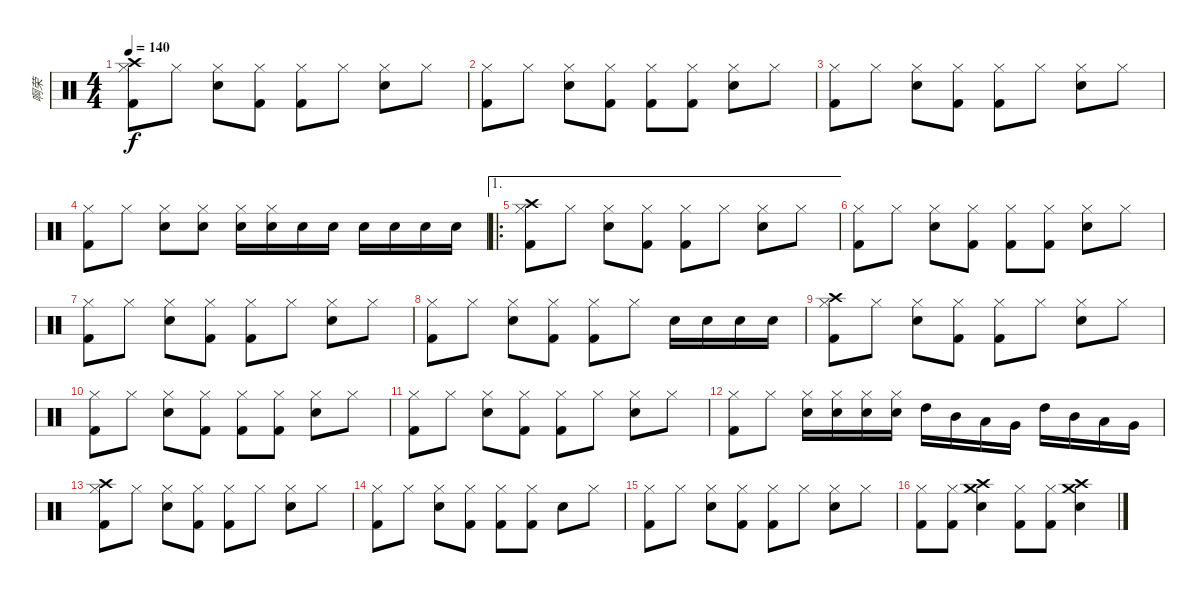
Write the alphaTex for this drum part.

\track ("啊荣" "啊荣") {instrument percussion}
\staff {score}
\articulation defaults
\ts (4 4)
\tempo 140
\clef neutral
\ks c
("Hi-Hat (closed)" "Crash high (hit)" "Kick (hit) 2").8{dy f} "Hi-Hat (closed)".8 ("Hi-Hat (closed)" "Electric Snare (hit)").8 ("Hi-Hat (closed)" "Kick (hit) 2").8 ("Hi-Hat (closed)" "Kick (hit) 2").8 "Hi-Hat (closed)".8 ("Hi-Hat (closed)" "Electric Snare (hit)").8 "Hi-Hat (closed)".8 |
("Hi-Hat (closed)" "Kick (hit) 2").8 "Hi-Hat (closed)".8 ("Hi-Hat (closed)" "Electric Snare (hit)").8 ("Hi-Hat (closed)" "Kick (hit) 2").8 ("Hi-Hat (closed)" "Kick (hit) 2").8 ("Hi-Hat (closed)" "Kick (hit) 2").8 ("Hi-Hat (closed)" "Electric Snare (hit)").8 "Hi-Hat (closed)".8 |
("Hi-Hat (closed)" "Kick (hit) 2").8 "Hi-Hat (closed)".8 ("Hi-Hat (closed)" "Electric Snare (hit)").8 ("Hi-Hat (closed)" "Kick (hit) 2").8 ("Hi-Hat (closed)" "Kick (hit) 2").8 "Hi-Hat (closed)".8 ("Hi-Hat (closed)" "Electric Snare (hit)").8 "Hi-Hat (closed)".8 |
("Hi-Hat (closed)" "Kick (hit) 2").8 "Hi-Hat (closed)".8 ("Hi-Hat (closed)" "Electric Snare (hit)").8 ("Hi-Hat (closed)" "Electric Snare (hit)").8 ("Hi-Hat (closed)" "Electric Snare (hit)").16 ("Hi-Hat (closed)" "Electric Snare (hit)").16 "Electric Snare (hit)".16 "Electric Snare (hit)".16 "Electric Snare (hit)".16 "Electric Snare (hit)".16 "Electric Snare (hit)".16 "Electric Snare (hit)".16 |
\ae 1
\ro
("Hi-Hat (closed)" "Crash high (hit)" "Kick (hit) 2").8 "Hi-Hat (closed)".8 ("Hi-Hat (closed)" "Electric Snare (hit)").8 ("Hi-Hat (closed)" "Kick (hit) 2").8 ("Hi-Hat (closed)" "Kick (hit) 2").8 "Hi-Hat (closed)".8 ("Hi-Hat (closed)" "Electric Snare (hit)").8 "Hi-Hat (closed)".8 |
("Hi-Hat (closed)" "Kick (hit) 2").8 "Hi-Hat (closed)".8 ("Hi-Hat (closed)" "Electric Snare (hit)").8 ("Hi-Hat (closed)" "Kick (hit) 2").8 ("Hi-Hat (closed)" "Kick (hit) 2").8 ("Hi-Hat (closed)" "Kick (hit) 2").8 ("Hi-Hat (closed)" "Electric Snare (hit)").8 "Hi-Hat (closed)".8 |
("Hi-Hat (closed)" "Kick (hit) 2").8 "Hi-Hat (closed)".8 ("Hi-Hat (closed)" "Electric Snare (hit)").8 ("Hi-Hat (closed)" "Kick (hit) 2").8 ("Hi-Hat (closed)" "Kick (hit) 2").8 "Hi-Hat (closed)".8 ("Hi-Hat (closed)" "Electric Snare (hit)").8 "Hi-Hat (closed)".8 |
("Hi-Hat (closed)" "Kick (hit) 2").8 "Hi-Hat (closed)".8 ("Hi-Hat (closed)" "Electric Snare (hit)").8 ("Hi-Hat (closed)" "Kick (hit) 2").8 ("Hi-Hat (closed)" "Kick (hit) 2").8 "Hi-Hat (closed)".8 "Electric Snare (hit)".16 "Electric Snare (hit)".16 "Electric Snare (hit)".16 "Electric Snare (hit)".16 |
("Hi-Hat (closed)" "Crash high (hit)" "Kick (hit) 2").8 "Hi-Hat (closed)".8 ("Hi-Hat (closed)" "Electric Snare (hit)").8 ("Hi-Hat (closed)" "Kick (hit) 2").8 ("Hi-Hat (closed)" "Kick (hit) 2").8 "Hi-Hat (closed)".8 ("Hi-Hat (closed)" "Electric Snare (hit)").8 "Hi-Hat (closed)".8 |
("Hi-Hat (closed)" "Kick (hit) 2").8 "Hi-Hat (closed)".8 ("Hi-Hat (closed)" "Electric Snare (hit)").8 ("Hi-Hat (closed)" "Kick (hit) 2").8 ("Hi-Hat (closed)" "Kick (hit) 2").8 ("Hi-Hat (closed)" "Kick (hit) 2").8 ("Hi-Hat (closed)" "Electric Snare (hit)").8 "Hi-Hat (closed)".8 |
("Hi-Hat (closed)" "Kick (hit) 2").8 "Hi-Hat (closed)".8 ("Hi-Hat (closed)" "Electric Snare (hit)").8 ("Hi-Hat (closed)" "Kick (hit) 2").8 ("Hi-Hat (closed)" "Kick (hit) 2").8 "Hi-Hat (closed)".8 ("Hi-Hat (closed)" "Electric Snare (hit)").8 "Hi-Hat (closed)".8 |
("Hi-Hat (closed)" "Kick (hit) 2").8 "Hi-Hat (closed)".8 ("Hi-Hat (closed)" "Electric Snare (hit)").16 ("Hi-Hat (closed)" "Electric Snare (hit)").16 ("Hi-Hat (closed)" "Electric Snare (hit)").16 ("Hi-Hat (closed)" "Electric Snare (hit)").16 "High Tom (hit)".16 "Mid Tom (hit)".16 "Low Tom (hit)".16 "Very Low Tom (hit)".16 "High Tom (hit)".16 "Mid Tom (hit)".16 "Low Tom (hit)".16 "Very Low Tom (hit)".16 |
("Kick (hit) 2" "Crash high (hit)" "Hi-Hat (closed)").8 "Hi-Hat (closed)".8 ("Hi-Hat (closed)" "Electric Snare (hit)").8 ("Hi-Hat (closed)" "Kick (hit) 2").8 ("Hi-Hat (closed)" "Kick (hit) 2").8 "Hi-Hat (closed)".8 ("Hi-Hat (closed)" "Electric Snare (hit)").8 "Hi-Hat (closed)".8 |
("Kick (hit) 2" "Hi-Hat (closed)").8 "Hi-Hat (closed)".8 ("Hi-Hat (closed)" "Electric Snare (hit)").8 ("Hi-Hat (closed)" "Kick (hit) 2").8 ("Hi-Hat (closed)" "Kick (hit) 2").8 ("Hi-Hat (closed)" "Kick (hit) 2").8 "Electric Snare (hit)".8 "Hi-Hat (closed)".8 |
("Kick (hit) 2" "Hi-Hat (closed)").8 "Hi-Hat (closed)".8 ("Hi-Hat (closed)" "Electric Snare (hit)").8 ("Hi-Hat (closed)" "Kick (hit) 2").8 ("Hi-Hat (closed)" "Kick (hit) 2").8 "Hi-Hat (closed)".8 ("Hi-Hat (closed)" "Electric Snare (hit)").8 "Hi-Hat (closed)".8 |
("Hi-Hat (closed)" "Kick (hit) 2").8 ("Hi-Hat (closed)" "Kick (hit) 2").8 ("Crash medium (hit)" "Crash high (hit)" "Electric Snare (hit)").4 ("Hi-Hat (closed)" "Kick (hit) 2").8 ("Hi-Hat (closed)" "Kick (hit) 2").8 ("Crash medium (hit)" "Crash high (hit)" "Electric Snare (hit)").4
